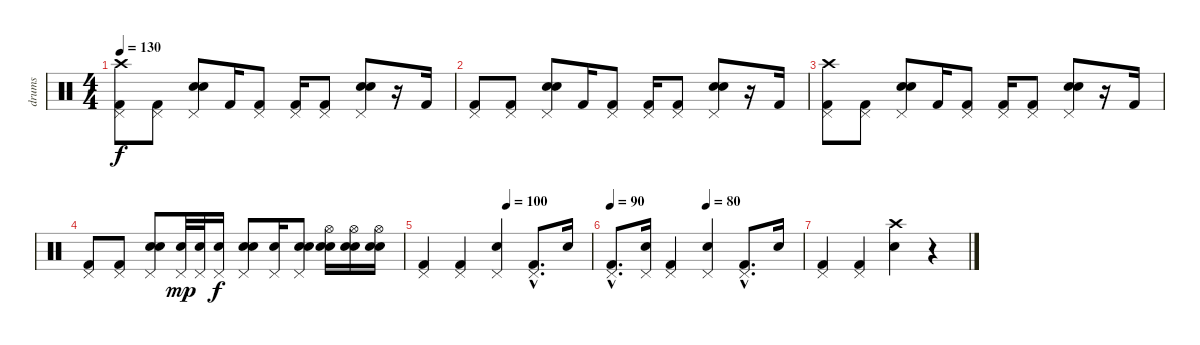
\track ("drums" "drums") {instrument percussion}
\staff {score}
\articulation defaults
\ts (4 4)
\tempo 130
\clef neutral
\ks c
("Crash high (hit)" "Kick (hit) 2" "Pedal Hi-Hat (hit)").8{dy f} ("Kick (hit) 2" "Pedal Hi-Hat (hit)").8 ("Electric Snare (hit)" "Snare (hit) 2" "Pedal Hi-Hat (hit)").8 "Kick (hit) 2".16 ("Kick (hit) 2" "Pedal Hi-Hat (hit)").8 ("Kick (hit) 2" "Pedal Hi-Hat (hit)").16 ("Kick (hit) 2" "Pedal Hi-Hat (hit)").8 ("Electric Snare (hit)" "Snare (hit) 2" "Pedal Hi-Hat (hit)").8 r.16 "Kick (hit) 2".16 |
("Kick (hit) 2" "Pedal Hi-Hat (hit)").8 ("Kick (hit) 2" "Pedal Hi-Hat (hit)").8 ("Electric Snare (hit)" "Snare (hit) 2" "Pedal Hi-Hat (hit)").8 "Kick (hit) 2".16 ("Kick (hit) 2" "Pedal Hi-Hat (hit)").8 ("Kick (hit) 2" "Pedal Hi-Hat (hit)").16 ("Kick (hit) 2" "Pedal Hi-Hat (hit)").8 ("Electric Snare (hit)" "Snare (hit) 2" "Pedal Hi-Hat (hit)").8 r.16 "Kick (hit) 2".16 |
("Crash high (hit)" "Kick (hit) 2" "Pedal Hi-Hat (hit)").8 ("Kick (hit) 2" "Pedal Hi-Hat (hit)").8 ("Electric Snare (hit)" "Snare (hit) 2" "Pedal Hi-Hat (hit)").8 "Kick (hit) 2".16 ("Kick (hit) 2" "Pedal Hi-Hat (hit)").8 ("Kick (hit) 2" "Pedal Hi-Hat (hit)").16 ("Kick (hit) 2" "Pedal Hi-Hat (hit)").8 ("Electric Snare (hit)" "Snare (hit) 2" "Pedal Hi-Hat (hit)").8 r.16 "Kick (hit) 2".16 |
("Kick (hit) 2" "Pedal Hi-Hat (hit)").8 ("Kick (hit) 2" "Pedal Hi-Hat (hit)").8 ("Electric Snare (hit)" "Snare (hit) 2" "Pedal Hi-Hat (hit)").8 ("Electric Snare (hit)" "Pedal Hi-Hat (hit)").32{dy mp} ("Electric Snare (hit)" "Pedal Hi-Hat (hit)").32 ("Electric Snare (hit)" "Pedal Hi-Hat (hit)").16{dy f} ("Snare (hit) 2" "Electric Snare (hit)" "Pedal Hi-Hat (hit)").8 ("Electric Snare (hit)" "Pedal Hi-Hat (hit)").16 ("Snare (hit) 2" "Electric Snare (hit)" "Pedal Hi-Hat (hit)").8 ("Snare (hit) 2" "Electric Snare (hit)" "Hi-Hat (open)").16 ("Snare (hit) 2" "Electric Snare (hit)" "Hi-Hat (open)").16 ("Snare (hit) 2" "Electric Snare (hit)" "Hi-Hat (open)").16 |
\tempo (100 0.5)
("Kick (hit) 2" "Pedal Hi-Hat (hit)").4 ("Kick (hit) 2" "Pedal Hi-Hat (hit)").4 ("Electric Snare (hit)" "Pedal Hi-Hat (hit)").4 ("Kick (hit) 2"{hac} "Pedal Hi-Hat (hit)").8{d} "Electric Snare (hit)".16 |
\tempo 90
\tempo (80 0.5)
("Kick (hit) 2"{hac} "Pedal Hi-Hat (hit)"{hac}).8{d} ("Electric Snare (hit)" "Pedal Hi-Hat (hit)").16 ("Kick (hit) 2" "Pedal Hi-Hat (hit)").4 ("Electric Snare (hit)" "Pedal Hi-Hat (hit)").4 ("Kick (hit) 2"{hac} "Pedal Hi-Hat (hit)"{hac}).8{d} "Electric Snare (hit)".16 |
("Kick (hit) 2" "Pedal Hi-Hat (hit)").4 ("Kick (hit) 2" "Pedal Hi-Hat (hit)").4 ("Electric Snare (hit)" "Crash high (hit)").4 r.4
